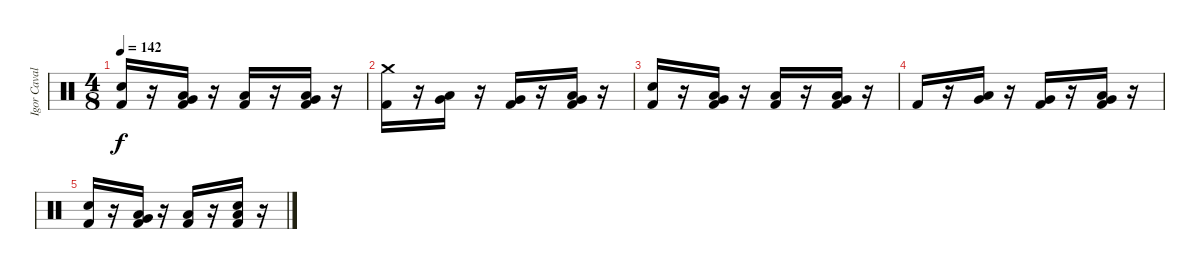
\track ("Igor Cavalera" "Igor Caval") {instrument percussion}
\staff {score}
\articulation defaults
\ts (4 8)
\tempo 142
\clef neutral
\ks c
("Electric Snare (hit)" "Kick (hit) 2").16{dy f} r.16 ("Kick (hit) 2" "Low Floor Tom (hit)" "Very Low Tom (hit)").16 r.16 ("Kick (hit) 2" "Low Floor Tom (hit)").16 r.16 ("Kick (hit) 2" "Low Floor Tom (hit)" "Very Low Tom (hit)").16 r.16 |
("Kick (hit) 2" "Crash medium (hit)").16 r.16 ("Low Tom (hit)" "Very Low Tom (hit)").16 r.16 ("Kick (hit) 2" "Very Low Tom (hit)").16 r.16 ("Kick (hit) 2" "Very Low Tom (hit)" "Low Floor Tom (hit)").16 r.16 |
("Electric Snare (hit)" "Kick (hit) 2").16 r.16 ("Kick (hit) 2" "Low Floor Tom (hit)" "Very Low Tom (hit)").16 r.16 ("Kick (hit) 2" "Low Floor Tom (hit)").16 r.16 ("Kick (hit) 2" "Low Floor Tom (hit)" "Very Low Tom (hit)").16 r.16 |
"Kick (hit) 2".16 r.16 ("Low Tom (hit)" "Very Low Tom (hit)").16 r.16 ("Kick (hit) 2" "Very Low Tom (hit)").16 r.16 ("Kick (hit) 2" "Very Low Tom (hit)" "Low Floor Tom (hit)").16 r.16 |
("Electric Snare (hit)" "Kick (hit) 2").16 r.16 ("Kick (hit) 2" "Low Floor Tom (hit)" "Very Low Tom (hit)").16 r.16 ("Kick (hit) 2" "Low Floor Tom (hit)").16 r.16 ("Kick (hit) 2" "Low Floor Tom (hit)" "Electric Snare (hit)").16 r.16
